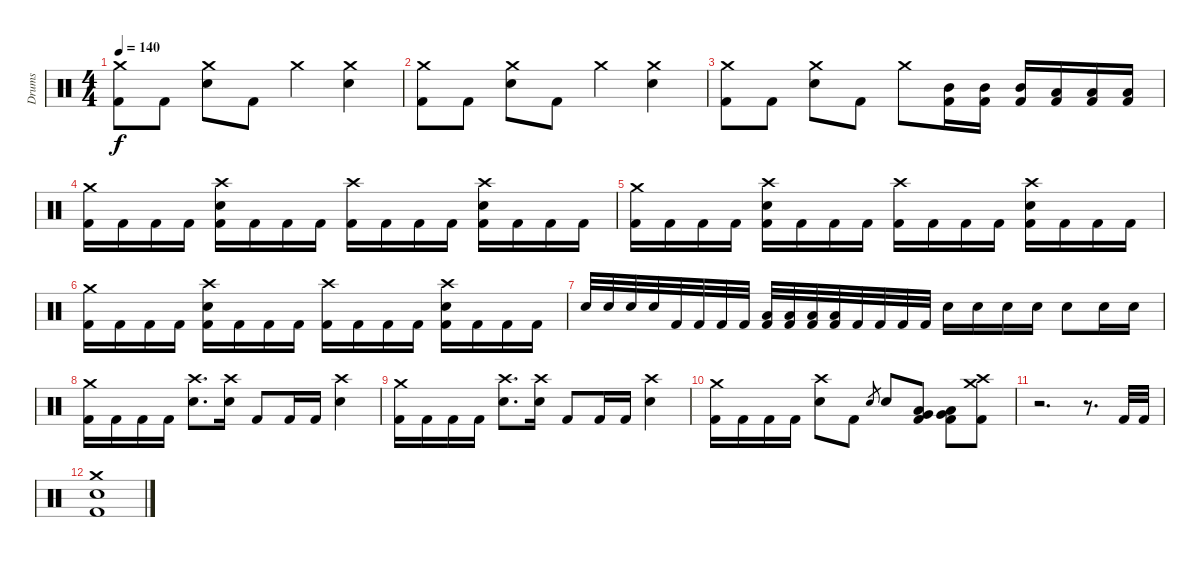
\track ("Drums" "Drums") {instrument percussion}
\staff {score}
\articulation defaults
\ts (4 4)
\tempo 140
\clef neutral
\ks c
("Crash medium (hit)" "Kick (hit) 2").8{dy f} "Kick (hit) 2".8 ("Crash medium (hit)" "Electric Snare (hit)").8 "Kick (hit) 2".8 "Crash medium (hit)".4 ("Crash medium (hit)" "Electric Snare (hit)").4 |
("Crash medium (hit)" "Kick (hit) 2").8 "Kick (hit) 2".8 ("Crash medium (hit)" "Electric Snare (hit)").8 "Kick (hit) 2".8 "Crash medium (hit)".4 ("Crash medium (hit)" "Electric Snare (hit)").4 |
("Crash medium (hit)" "Kick (hit) 2").8 "Kick (hit) 2".8 ("Crash medium (hit)" "Electric Snare (hit)").8 "Kick (hit) 2".8 "Crash medium (hit)".8 ("Mid Tom (hit)" "Kick (hit) 2").16 ("Mid Tom (hit)" "Kick (hit) 2").16 ("Mid Tom (hit)" "Kick (hit) 2").16 ("Low Tom (hit)" "Kick (hit) 2").16 ("Low Tom (hit)" "Kick (hit) 2").16 ("Low Tom (hit)" "Kick (hit) 2").16 |
("Crash medium (hit)" "Kick (hit) 2").16 "Kick (hit) 2".16 "Kick (hit) 2".16 "Kick (hit) 2".16 ("Crash high (hit)" "Electric Snare (hit)" "Kick (hit) 2").16 "Kick (hit) 2".16 "Kick (hit) 2".16 "Kick (hit) 2".16 ("Crash high (hit)" "Kick (hit) 2").16 "Kick (hit) 2".16 "Kick (hit) 2".16 "Kick (hit) 2".16 ("Crash high (hit)" "Electric Snare (hit)" "Kick (hit) 2").16 "Kick (hit) 2".16 "Kick (hit) 2".16 "Kick (hit) 2".16 |
("Crash medium (hit)" "Kick (hit) 2").16 "Kick (hit) 2".16 "Kick (hit) 2".16 "Kick (hit) 2".16 ("Crash high (hit)" "Electric Snare (hit)" "Kick (hit) 2").16 "Kick (hit) 2".16 "Kick (hit) 2".16 "Kick (hit) 2".16 ("Crash high (hit)" "Kick (hit) 2").16 "Kick (hit) 2".16 "Kick (hit) 2".16 "Kick (hit) 2".16 ("Crash high (hit)" "Electric Snare (hit)" "Kick (hit) 2").16 "Kick (hit) 2".16 "Kick (hit) 2".16 "Kick (hit) 2".16 |
("Crash medium (hit)" "Kick (hit) 2").16 "Kick (hit) 2".16 "Kick (hit) 2".16 "Kick (hit) 2".16 ("Crash high (hit)" "Electric Snare (hit)" "Kick (hit) 2").16 "Kick (hit) 2".16 "Kick (hit) 2".16 "Kick (hit) 2".16 ("Crash high (hit)" "Kick (hit) 2").16 "Kick (hit) 2".16 "Kick (hit) 2".16 "Kick (hit) 2".16 ("Crash high (hit)" "Electric Snare (hit)" "Kick (hit) 2").16 "Kick (hit) 2".16 "Kick (hit) 2".16 "Kick (hit) 2".16 |
"Electric Snare (hit)".32 "Electric Snare (hit)".32 "Electric Snare (hit)".32 "Electric Snare (hit)".32 "Kick (hit) 2".32 "Kick (hit) 2".32 "Kick (hit) 2".32 "Kick (hit) 2".32 ("Low Floor Tom (hit)" "Kick (hit) 2").32 ("Low Floor Tom (hit)" "Kick (hit) 2").32 ("Low Floor Tom (hit)" "Kick (hit) 2").32 ("Low Floor Tom (hit)" "Kick (hit) 2").32 "Kick (hit) 2".32 "Kick (hit) 2".32 "Kick (hit) 2".32 "Kick (hit) 2".32 "Electric Snare (hit)".16 "Electric Snare (hit)".16 "Electric Snare (hit)".16 "Electric Snare (hit)".16 "Electric Snare (hit)".8 "Electric Snare (hit)".16 "Electric Snare (hit)".16 |
("Crash medium (hit)" "Kick (hit) 2").16 "Kick (hit) 2".16 "Kick (hit) 2".16 "Kick (hit) 2".16 ("Crash high (hit)" "Electric Snare (hit)").8{d} ("Crash high (hit)" "Electric Snare (hit)").16 "Kick (hit) 2".8 "Kick (hit) 2".16 "Kick (hit) 2".16 ("Crash high (hit)" "Electric Snare (hit)").4 |
("Crash medium (hit)" "Kick (hit) 2").16 "Kick (hit) 2".16 "Kick (hit) 2".16 "Kick (hit) 2".16 ("Crash high (hit)" "Electric Snare (hit)").8{d} ("Crash high (hit)" "Electric Snare (hit)").16 "Kick (hit) 2".8 "Kick (hit) 2".16 "Kick (hit) 2".16 ("Crash high (hit)" "Electric Snare (hit)").4 |
("Crash medium (hit)" "Kick (hit) 2").16 "Kick (hit) 2".16 "Kick (hit) 2".16 "Kick (hit) 2".16 ("Crash high (hit)" "Electric Snare (hit)").8 "Kick (hit) 2".8 "Electric Snare (hit)".8{gr} "Electric Snare (hit)".8 ("Very Low Tom (hit)" "Low Tom (hit)" "Kick (hit) 2").8 ("Very Low Tom (hit)" "Low Tom (hit)" "Kick (hit) 2").8 ("Crash medium (hit)" "Crash high (hit)" "Kick (hit) 2").8 |
r.2{d} r.8{d} "Kick (hit) 2".32 "Kick (hit) 2".32 |
("Crash medium (hit)" "Electric Snare (hit)" "Kick (hit) 2").1
